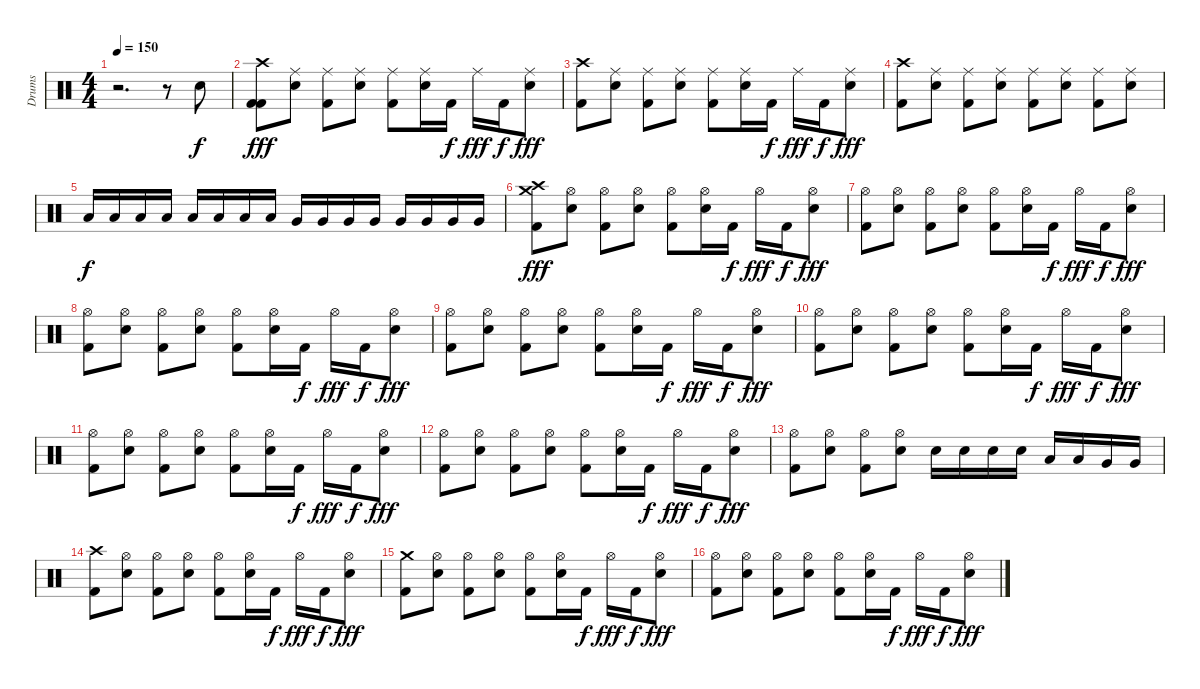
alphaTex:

\track ("Drums" "Drums") {instrument percussion}
\staff {score}
\articulation defaults
\ts (4 4)
\tempo 150
\clef neutral
\ks c
r.2{d dy f} r.8 "Electric Snare (hit)".8 |
("Crash high (hit)" "Kick (hit) 2" "Kick (hit) 2").8{dy fff} ("Ride (middle)" "Electric Snare (hit)").8 ("Ride (middle)" "Kick (hit) 2").8 ("Ride (middle)" "Electric Snare (hit)").8 ("Ride (middle)" "Kick (hit) 2").8 ("Ride (middle)" "Electric Snare (hit)").16 "Kick (hit) 2".16{dy f} "Ride (middle)".16{dy fff} "Kick (hit) 2".16{dy f} ("Ride (middle)" "Electric Snare (hit)").8{dy fff} |
("Crash high (hit)" "Kick (hit) 2").8 ("Ride (middle)" "Electric Snare (hit)").8 ("Ride (middle)" "Kick (hit) 2").8 ("Ride (middle)" "Electric Snare (hit)").8 ("Ride (middle)" "Kick (hit) 2").8 ("Ride (middle)" "Electric Snare (hit)").16 "Kick (hit) 2".16{dy f} "Ride (middle)".16{dy fff} "Kick (hit) 2".16{dy f} ("Ride (middle)" "Electric Snare (hit)").8{dy fff} |
("Crash high (hit)" "Kick (hit) 2").8 ("Ride (middle)" "Electric Snare (hit)").8 ("Ride (middle)" "Kick (hit) 2").8 ("Ride (middle)" "Electric Snare (hit)").8 ("Ride (middle)" "Kick (hit) 2").8 ("Ride (middle)" "Electric Snare (hit)").8 ("Ride (middle)" "Kick (hit) 2").8 ("Ride (middle)" "Electric Snare (hit)").8 |
"Low Tom (hit)".16{dy f} "Low Tom (hit)".16 "Low Tom (hit)".16 "Low Tom (hit)".16 "Low Tom (hit)".16 "Low Tom (hit)".16 "Low Tom (hit)".16 "Low Tom (hit)".16 "Very Low Tom (hit)".16 "Very Low Tom (hit)".16 "Very Low Tom (hit)".16 "Very Low Tom (hit)".16 "Very Low Tom (hit)".16 "Very Low Tom (hit)".16 "Very Low Tom (hit)".16 "Very Low Tom (hit)".16 |
("Crash high (hit)" "Crash medium (hit)" "Kick (hit) 2").8{dy fff} ("Hi-Hat (open)" "Electric Snare (hit)").8 ("Hi-Hat (open)" "Kick (hit) 2").8 ("Hi-Hat (open)" "Electric Snare (hit)").8 ("Hi-Hat (open)" "Kick (hit) 2").8 ("Hi-Hat (open)" "Electric Snare (hit)").16 "Kick (hit) 2".16{dy f} "Hi-Hat (open)".16{dy fff} "Kick (hit) 2".16{dy f} ("Hi-Hat (open)" "Electric Snare (hit)").8{dy fff} |
("Hi-Hat (open)" "Kick (hit) 2").8 ("Hi-Hat (open)" "Electric Snare (hit)").8 ("Hi-Hat (open)" "Kick (hit) 2").8 ("Hi-Hat (open)" "Electric Snare (hit)").8 ("Hi-Hat (open)" "Kick (hit) 2").8 ("Hi-Hat (open)" "Electric Snare (hit)").16 "Kick (hit) 2".16{dy f} "Hi-Hat (open)".16{dy fff} "Kick (hit) 2".16{dy f} ("Hi-Hat (open)" "Electric Snare (hit)").8{dy fff} |
("Hi-Hat (open)" "Kick (hit) 2").8 ("Hi-Hat (open)" "Electric Snare (hit)").8 ("Hi-Hat (open)" "Kick (hit) 2").8 ("Hi-Hat (open)" "Electric Snare (hit)").8 ("Hi-Hat (open)" "Kick (hit) 2").8 ("Hi-Hat (open)" "Electric Snare (hit)").16 "Kick (hit) 2".16{dy f} "Hi-Hat (open)".16{dy fff} "Kick (hit) 2".16{dy f} ("Hi-Hat (open)" "Electric Snare (hit)").8{dy fff} |
("Hi-Hat (open)" "Kick (hit) 2").8 ("Hi-Hat (open)" "Electric Snare (hit)").8 ("Hi-Hat (open)" "Kick (hit) 2").8 ("Hi-Hat (open)" "Electric Snare (hit)").8 ("Hi-Hat (open)" "Kick (hit) 2").8 ("Hi-Hat (open)" "Electric Snare (hit)").16 "Kick (hit) 2".16{dy f} "Hi-Hat (open)".16{dy fff} "Kick (hit) 2".16{dy f} ("Hi-Hat (open)" "Electric Snare (hit)").8{dy fff} |
("Hi-Hat (open)" "Kick (hit) 2").8 ("Hi-Hat (open)" "Electric Snare (hit)").8 ("Hi-Hat (open)" "Kick (hit) 2").8 ("Hi-Hat (open)" "Electric Snare (hit)").8 ("Hi-Hat (open)" "Kick (hit) 2").8 ("Hi-Hat (open)" "Electric Snare (hit)").16 "Kick (hit) 2".16{dy f} "Hi-Hat (open)".16{dy fff} "Kick (hit) 2".16{dy f} ("Hi-Hat (open)" "Electric Snare (hit)").8{dy fff} |
("Hi-Hat (open)" "Kick (hit) 2").8 ("Hi-Hat (open)" "Electric Snare (hit)").8 ("Hi-Hat (open)" "Kick (hit) 2").8 ("Hi-Hat (open)" "Electric Snare (hit)").8 ("Hi-Hat (open)" "Kick (hit) 2").8 ("Hi-Hat (open)" "Electric Snare (hit)").16 "Kick (hit) 2".16{dy f} "Hi-Hat (open)".16{dy fff} "Kick (hit) 2".16{dy f} ("Hi-Hat (open)" "Electric Snare (hit)").8{dy fff} |
("Hi-Hat (open)" "Kick (hit) 2").8 ("Hi-Hat (open)" "Electric Snare (hit)").8 ("Hi-Hat (open)" "Kick (hit) 2").8 ("Hi-Hat (open)" "Electric Snare (hit)").8 ("Hi-Hat (open)" "Kick (hit) 2").8 ("Hi-Hat (open)" "Electric Snare (hit)").16 "Kick (hit) 2".16{dy f} "Hi-Hat (open)".16{dy fff} "Kick (hit) 2".16{dy f} ("Hi-Hat (open)" "Electric Snare (hit)").8{dy fff} |
("Hi-Hat (open)" "Kick (hit) 2").8 ("Hi-Hat (open)" "Electric Snare (hit)").8 ("Hi-Hat (open)" "Kick (hit) 2").8 ("Hi-Hat (open)" "Electric Snare (hit)").8 "Electric Snare (hit)".16 "Electric Snare (hit)".16 "Electric Snare (hit)".16 "Electric Snare (hit)".16 "Low Tom (hit)".16 "Low Tom (hit)".16 "Very Low Tom (hit)".16 "Very Low Tom (hit)".16 |
("Crash high (hit)" "Kick (hit) 2").8 ("Hi-Hat (open)" "Electric Snare (hit)").8 ("Hi-Hat (open)" "Kick (hit) 2").8 ("Hi-Hat (open)" "Electric Snare (hit)").8 ("Hi-Hat (open)" "Kick (hit) 2").8 ("Hi-Hat (open)" "Electric Snare (hit)").16 "Kick (hit) 2".16{dy f} "Hi-Hat (open)".16{dy fff} "Kick (hit) 2".16{dy f} ("Hi-Hat (open)" "Electric Snare (hit)").8{dy fff} |
("Crash medium (hit)" "Kick (hit) 2").8 ("Hi-Hat (open)" "Electric Snare (hit)").8 ("Hi-Hat (open)" "Kick (hit) 2").8 ("Hi-Hat (open)" "Electric Snare (hit)").8 ("Hi-Hat (open)" "Kick (hit) 2").8 ("Hi-Hat (open)" "Electric Snare (hit)").16 "Kick (hit) 2".16{dy f} "Hi-Hat (open)".16{dy fff} "Kick (hit) 2".16{dy f} ("Hi-Hat (open)" "Electric Snare (hit)").8{dy fff} |
("Hi-Hat (open)" "Kick (hit) 2").8 ("Hi-Hat (open)" "Electric Snare (hit)").8 ("Hi-Hat (open)" "Kick (hit) 2").8 ("Hi-Hat (open)" "Electric Snare (hit)").8 ("Hi-Hat (open)" "Kick (hit) 2").8 ("Hi-Hat (open)" "Electric Snare (hit)").16 "Kick (hit) 2".16{dy f} "Hi-Hat (open)".16{dy fff} "Kick (hit) 2".16{dy f} ("Hi-Hat (open)" "Electric Snare (hit)").8{dy fff}
